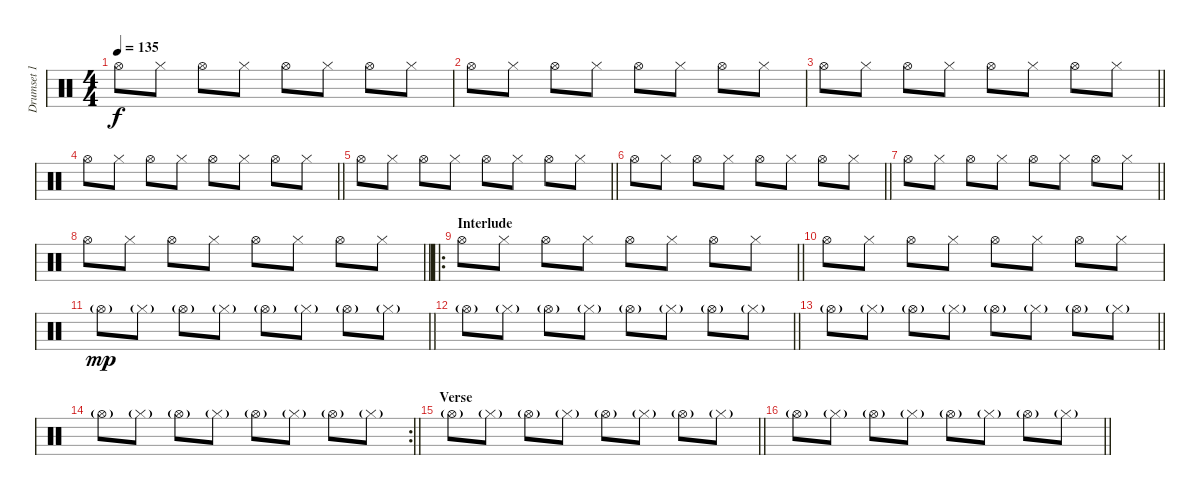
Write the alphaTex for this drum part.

\track ("Drumset 1" "Drumset 1") {instrument percussion}
\staff {score}
\articulation defaults
\ts (4 4)
\tempo 135
\clef neutral
\ks c "Hi-Hat (open)".8{dy f} "Hi-Hat (closed)".8 "Hi-Hat (open)".8 "Hi-Hat (closed)".8 "Hi-Hat (open)".8 "Hi-Hat (closed)".8 "Hi-Hat (open)".8 "Hi-Hat (closed)".8
|
"Hi-Hat (open)".8 "Hi-Hat (closed)".8 "Hi-Hat (open)".8 "Hi-Hat (closed)".8 "Hi-Hat (open)".8 "Hi-Hat (closed)".8 "Hi-Hat (open)".8 "Hi-Hat (closed)".8 |
\barLineRight lightlight "Hi-Hat (open)".8 "Hi-Hat (closed)".8 "Hi-Hat (open)".8 "Hi-Hat (closed)".8 "Hi-Hat (open)".8 "Hi-Hat (closed)".8 "Hi-Hat (open)".8 "Hi-Hat (closed)".8
|
\barLineRight lightlight "Hi-Hat (open)".8 "Hi-Hat (closed)".8 "Hi-Hat (open)".8 "Hi-Hat (closed)".8 "Hi-Hat (open)".8 "Hi-Hat (closed)".8 "Hi-Hat (open)".8 "Hi-Hat (closed)".8
|
\barLineRight lightlight "Hi-Hat (open)".8 "Hi-Hat (closed)".8 "Hi-Hat (open)".8 "Hi-Hat (closed)".8 "Hi-Hat (open)".8 "Hi-Hat (closed)".8 "Hi-Hat (open)".8 "Hi-Hat (closed)".8
|
\barLineRight lightlight "Hi-Hat (open)".8 "Hi-Hat (closed)".8 "Hi-Hat (open)".8 "Hi-Hat (closed)".8 "Hi-Hat (open)".8 "Hi-Hat (closed)".8 "Hi-Hat (open)".8 "Hi-Hat (closed)".8
|
\barLineRight lightlight "Hi-Hat (open)".8 "Hi-Hat (closed)".8 "Hi-Hat (open)".8 "Hi-Hat (closed)".8 "Hi-Hat (open)".8 "Hi-Hat (closed)".8 "Hi-Hat (open)".8 "Hi-Hat (closed)".8
|
\barLineRight lightlight "Hi-Hat (open)".8 "Hi-Hat (closed)".8 "Hi-Hat (open)".8 "Hi-Hat (closed)".8 "Hi-Hat (open)".8 "Hi-Hat (closed)".8 "Hi-Hat (open)".8 "Hi-Hat (closed)".8
|
\ro
\section ("" "Interlude")
\barLineRight lightlight "Hi-Hat (open)".8 "Hi-Hat (closed)".8 "Hi-Hat (open)".8 "Hi-Hat (closed)".8 "Hi-Hat (open)".8 "Hi-Hat (closed)".8 "Hi-Hat (open)".8 "Hi-Hat (closed)".8
|
"Hi-Hat (open)".8 "Hi-Hat (closed)".8 "Hi-Hat (open)".8 "Hi-Hat (closed)".8 "Hi-Hat (open)".8 "Hi-Hat (closed)".8 "Hi-Hat (open)".8 "Hi-Hat (closed)".8 |
\barLineRight lightlight "Hi-Hat (open)"{g}.8{dy mp} "Hi-Hat (closed)"{g}.8 "Hi-Hat (open)"{g}.8 "Hi-Hat (closed)"{g}.8 "Hi-Hat (open)"{g}.8 "Hi-Hat (closed)"{g}.8 "Hi-Hat (open)"{g}.8 "Hi-Hat (closed)"{g}.8
|
\barLineRight lightlight "Hi-Hat (open)"{g}.8 "Hi-Hat (closed)"{g}.8 "Hi-Hat (open)"{g}.8 "Hi-Hat (closed)"{g}.8 "Hi-Hat (open)"{g}.8 "Hi-Hat (closed)"{g}.8 "Hi-Hat (open)"{g}.8 "Hi-Hat (closed)"{g}.8
|
\barLineRight lightlight "Hi-Hat (open)"{g}.8 "Hi-Hat (closed)"{g}.8 "Hi-Hat (open)"{g}.8 "Hi-Hat (closed)"{g}.8 "Hi-Hat (open)"{g}.8 "Hi-Hat (closed)"{g}.8 "Hi-Hat (open)"{g}.8 "Hi-Hat (closed)"{g}.8
|
\rc 2
\barLineRight lightlight "Hi-Hat (open)"{g}.8 "Hi-Hat (closed)"{g}.8 "Hi-Hat (open)"{g}.8 "Hi-Hat (closed)"{g}.8 "Hi-Hat (open)"{g}.8 "Hi-Hat (closed)"{g}.8 "Hi-Hat (open)"{g}.8 "Hi-Hat (closed)"{g}.8
|
\section ("" "Verse")
\barLineRight lightlight "Hi-Hat (open)"{g}.8 "Hi-Hat (closed)"{g}.8 "Hi-Hat (open)"{g}.8 "Hi-Hat (closed)"{g}.8 "Hi-Hat (open)"{g}.8 "Hi-Hat (closed)"{g}.8 "Hi-Hat (open)"{g}.8 "Hi-Hat (closed)"{g}.8
|
\barLineRight lightlight "Hi-Hat (open)"{g}.8 "Hi-Hat (closed)"{g}.8 "Hi-Hat (open)"{g}.8 "Hi-Hat (closed)"{g}.8 "Hi-Hat (open)"{g}.8 "Hi-Hat (closed)"{g}.8 "Hi-Hat (open)"{g}.8 "Hi-Hat (closed)"{g}.8
